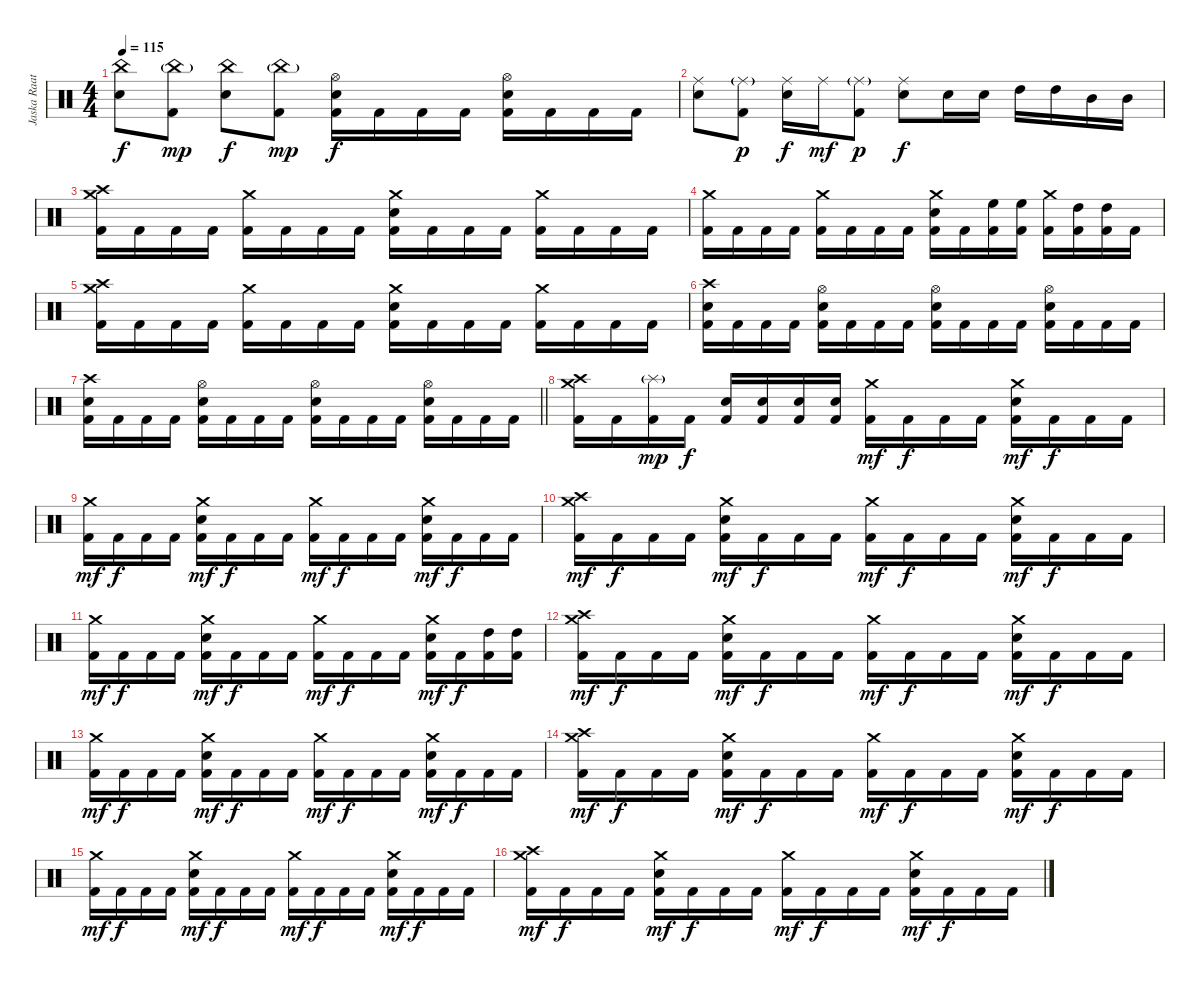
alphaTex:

\track ("Jaska Raatikainen" "Jaska Raat") {instrument percussion}
\staff {score}
\articulation defaults
\ts (4 4)
\tempo 115
\clef neutral
\ks c
("China (hit)" "Electric Snare (hit)").8{dy f} ("China (hit)"{g} "Kick (hit) 2").8{dy mp} ("China (hit)" "Electric Snare (hit)").8{dy f} ("China (hit)"{g} "Kick (hit) 2").8{dy mp} ("Hi-Hat (open)" "Electric Snare (hit)" "Kick (hit) 2").16{dy f} "Kick (hit) 2".16 "Kick (hit) 2".16 "Kick (hit) 2".16 ("Hi-Hat (open)" "Electric Snare (hit)" "Kick (hit) 2").16 "Kick (hit) 2".16 "Kick (hit) 2".16 "Kick (hit) 2".16 |
("Ride (middle)" "Electric Snare (hit)").8 ("Ride (middle)"{g} "Kick (hit) 2").8{dy p} ("Ride (middle)" "Electric Snare (hit)").16{dy f} "Ride (middle)".16{dy mf} ("Ride (middle)"{g} "Kick (hit) 2").8{dy p} ("Ride (middle)" "Electric Snare (hit)").8{dy f} "Electric Snare (hit)".16 "Electric Snare (hit)".16 "High Tom (hit)".16 "High Tom (hit)".16 "Mid Tom (hit)".16 "Mid Tom (hit)".16 |
("Crash high (hit)" "Crash medium (hit)" "Kick (hit) 2").16 "Kick (hit) 2".16 "Kick (hit) 2".16 "Kick (hit) 2".16 ("Crash medium (hit)" "Kick (hit) 2").16 "Kick (hit) 2".16 "Kick (hit) 2".16 "Kick (hit) 2".16 ("Crash medium (hit)" "Electric Snare (hit)" "Kick (hit) 2").16 "Kick (hit) 2".16 "Kick (hit) 2".16 "Kick (hit) 2".16 ("Crash medium (hit)" "Kick (hit) 2").16 "Kick (hit) 2".16 "Kick (hit) 2".16 "Kick (hit) 2".16 |
("Crash medium (hit)" "Kick (hit) 2").16 "Kick (hit) 2".16 "Kick (hit) 2".16 "Kick (hit) 2".16 ("Crash medium (hit)" "Kick (hit) 2").16 "Kick (hit) 2".16 "Kick (hit) 2".16 "Kick (hit) 2".16 ("Crash medium (hit)" "Electric Snare (hit)" "Kick (hit) 2").16 "Kick (hit) 2".16 ("High Floor Tom (hit)" "Kick (hit) 2").16 ("High Floor Tom (hit)" "Kick (hit) 2").16 ("Crash medium (hit)" "Kick (hit) 2").16 ("High Tom (hit)" "Kick (hit) 2").16 ("High Tom (hit)" "Kick (hit) 2").16 "Kick (hit) 2".16 |
("Crash high (hit)" "Crash medium (hit)" "Kick (hit) 2").16 "Kick (hit) 2".16 "Kick (hit) 2".16 "Kick (hit) 2".16 ("Crash medium (hit)" "Kick (hit) 2").16 "Kick (hit) 2".16 "Kick (hit) 2".16 "Kick (hit) 2".16 ("Crash medium (hit)" "Electric Snare (hit)" "Kick (hit) 2").16 "Kick (hit) 2".16 "Kick (hit) 2".16 "Kick (hit) 2".16 ("Crash medium (hit)" "Kick (hit) 2").16 "Kick (hit) 2".16 "Kick (hit) 2".16 "Kick (hit) 2".16 |
("Crash high (hit)" "Electric Snare (hit)" "Kick (hit) 2").16 "Kick (hit) 2".16 "Kick (hit) 2".16 "Kick (hit) 2".16 ("Hi-Hat (open)" "Electric Snare (hit)" "Kick (hit) 2").16 "Kick (hit) 2".16 "Kick (hit) 2".16 "Kick (hit) 2".16 ("Hi-Hat (open)" "Electric Snare (hit)" "Kick (hit) 2").16 "Kick (hit) 2".16 "Kick (hit) 2".16 "Kick (hit) 2".16 ("Hi-Hat (open)" "Electric Snare (hit)" "Kick (hit) 2").16 "Kick (hit) 2".16 "Kick (hit) 2".16 "Kick (hit) 2".16 |
\barLineRight lightlight
("Crash high (hit)" "Electric Snare (hit)" "Kick (hit) 2").16 "Kick (hit) 2".16 "Kick (hit) 2".16 "Kick (hit) 2".16 ("Hi-Hat (open)" "Electric Snare (hit)" "Kick (hit) 2").16 "Kick (hit) 2".16 "Kick (hit) 2".16 "Kick (hit) 2".16 ("Hi-Hat (open)" "Electric Snare (hit)" "Kick (hit) 2").16 "Kick (hit) 2".16 "Kick (hit) 2".16 "Kick (hit) 2".16 ("Hi-Hat (open)" "Electric Snare (hit)" "Kick (hit) 2").16 "Kick (hit) 2".16 "Kick (hit) 2".16 "Kick (hit) 2".16 |
("Crash medium (hit)" "Crash high (hit)" "Kick (hit) 2").16 "Kick (hit) 2".16 ("Splash (hit)"{g} "Kick (hit) 2").16{dy mp} "Kick (hit) 2".16{dy f} ("Electric Snare (hit)" "Kick (hit) 2").16 ("Electric Snare (hit)" "Kick (hit) 2").16 ("Electric Snare (hit)" "Kick (hit) 2").16 ("Electric Snare (hit)" "Kick (hit) 2").16 ("Crash medium (hit)" "Kick (hit) 2").16{dy mf} "Kick (hit) 2".16{dy f} "Kick (hit) 2".16 "Kick (hit) 2".16 ("Crash medium (hit)" "Electric Snare (hit)" "Kick (hit) 2").16{dy mf} "Kick (hit) 2".16{dy f} "Kick (hit) 2".16 "Kick (hit) 2".16 |
("Crash medium (hit)" "Kick (hit) 2").16{dy mf} "Kick (hit) 2".16{dy f} "Kick (hit) 2".16 "Kick (hit) 2".16 ("Crash medium (hit)" "Electric Snare (hit)" "Kick (hit) 2").16{dy mf} "Kick (hit) 2".16{dy f} "Kick (hit) 2".16 "Kick (hit) 2".16 ("Crash medium (hit)" "Kick (hit) 2").16{dy mf} "Kick (hit) 2".16{dy f} "Kick (hit) 2".16 "Kick (hit) 2".16 ("Crash medium (hit)" "Electric Snare (hit)" "Kick (hit) 2").16{dy mf} "Kick (hit) 2".16{dy f} "Kick (hit) 2".16 "Kick (hit) 2".16 |
("Crash medium (hit)" "Crash high (hit)" "Kick (hit) 2").16{dy mf} "Kick (hit) 2".16{dy f} "Kick (hit) 2".16 "Kick (hit) 2".16 ("Crash medium (hit)" "Electric Snare (hit)" "Kick (hit) 2").16{dy mf} "Kick (hit) 2".16{dy f} "Kick (hit) 2".16 "Kick (hit) 2".16 ("Crash medium (hit)" "Kick (hit) 2").16{dy mf} "Kick (hit) 2".16{dy f} "Kick (hit) 2".16 "Kick (hit) 2".16 ("Crash medium (hit)" "Electric Snare (hit)" "Kick (hit) 2").16{dy mf} "Kick (hit) 2".16{dy f} "Kick (hit) 2".16 "Kick (hit) 2".16 |
("Crash medium (hit)" "Kick (hit) 2").16{dy mf} "Kick (hit) 2".16{dy f} "Kick (hit) 2".16 "Kick (hit) 2".16 ("Crash medium (hit)" "Electric Snare (hit)" "Kick (hit) 2").16{dy mf} "Kick (hit) 2".16{dy f} "Kick (hit) 2".16 "Kick (hit) 2".16 ("Crash medium (hit)" "Kick (hit) 2").16{dy mf} "Kick (hit) 2".16{dy f} "Kick (hit) 2".16 "Kick (hit) 2".16 ("Crash medium (hit)" "Electric Snare (hit)" "Kick (hit) 2").16{dy mf} "Kick (hit) 2".16{dy f} ("High Tom (hit)" "Kick (hit) 2").16 ("High Tom (hit)" "Kick (hit) 2").16 |
("Crash medium (hit)" "Crash high (hit)" "Kick (hit) 2").16{dy mf} "Kick (hit) 2".16{dy f} "Kick (hit) 2".16 "Kick (hit) 2".16 ("Crash medium (hit)" "Electric Snare (hit)" "Kick (hit) 2").16{dy mf} "Kick (hit) 2".16{dy f} "Kick (hit) 2".16 "Kick (hit) 2".16 ("Crash medium (hit)" "Kick (hit) 2").16{dy mf} "Kick (hit) 2".16{dy f} "Kick (hit) 2".16 "Kick (hit) 2".16 ("Crash medium (hit)" "Electric Snare (hit)" "Kick (hit) 2").16{dy mf} "Kick (hit) 2".16{dy f} "Kick (hit) 2".16 "Kick (hit) 2".16 |
("Crash medium (hit)" "Kick (hit) 2").16{dy mf} "Kick (hit) 2".16{dy f} "Kick (hit) 2".16 "Kick (hit) 2".16 ("Crash medium (hit)" "Electric Snare (hit)" "Kick (hit) 2").16{dy mf} "Kick (hit) 2".16{dy f} "Kick (hit) 2".16 "Kick (hit) 2".16 ("Crash medium (hit)" "Kick (hit) 2").16{dy mf} "Kick (hit) 2".16{dy f} "Kick (hit) 2".16 "Kick (hit) 2".16 ("Crash medium (hit)" "Electric Snare (hit)" "Kick (hit) 2").16{dy mf} "Kick (hit) 2".16{dy f} "Kick (hit) 2".16 "Kick (hit) 2".16 |
("Crash medium (hit)" "Crash high (hit)" "Kick (hit) 2").16{dy mf} "Kick (hit) 2".16{dy f} "Kick (hit) 2".16 "Kick (hit) 2".16 ("Crash medium (hit)" "Electric Snare (hit)" "Kick (hit) 2").16{dy mf} "Kick (hit) 2".16{dy f} "Kick (hit) 2".16 "Kick (hit) 2".16 ("Crash medium (hit)" "Kick (hit) 2").16{dy mf} "Kick (hit) 2".16{dy f} "Kick (hit) 2".16 "Kick (hit) 2".16 ("Crash medium (hit)" "Electric Snare (hit)" "Kick (hit) 2").16{dy mf} "Kick (hit) 2".16{dy f} "Kick (hit) 2".16 "Kick (hit) 2".16 |
("Crash medium (hit)" "Kick (hit) 2").16{dy mf} "Kick (hit) 2".16{dy f} "Kick (hit) 2".16 "Kick (hit) 2".16 ("Crash medium (hit)" "Electric Snare (hit)" "Kick (hit) 2").16{dy mf} "Kick (hit) 2".16{dy f} "Kick (hit) 2".16 "Kick (hit) 2".16 ("Crash medium (hit)" "Kick (hit) 2").16{dy mf} "Kick (hit) 2".16{dy f} "Kick (hit) 2".16 "Kick (hit) 2".16 ("Crash medium (hit)" "Electric Snare (hit)" "Kick (hit) 2").16{dy mf} "Kick (hit) 2".16{dy f} "Kick (hit) 2".16 "Kick (hit) 2".16 |
("Crash medium (hit)" "Crash high (hit)" "Kick (hit) 2").16{dy mf} "Kick (hit) 2".16{dy f} "Kick (hit) 2".16 "Kick (hit) 2".16 ("Crash medium (hit)" "Electric Snare (hit)" "Kick (hit) 2").16{dy mf} "Kick (hit) 2".16{dy f} "Kick (hit) 2".16 "Kick (hit) 2".16 ("Crash medium (hit)" "Kick (hit) 2").16{dy mf} "Kick (hit) 2".16{dy f} "Kick (hit) 2".16 "Kick (hit) 2".16 ("Crash medium (hit)" "Electric Snare (hit)" "Kick (hit) 2").16{dy mf} "Kick (hit) 2".16{dy f} "Kick (hit) 2".16 "Kick (hit) 2".16
